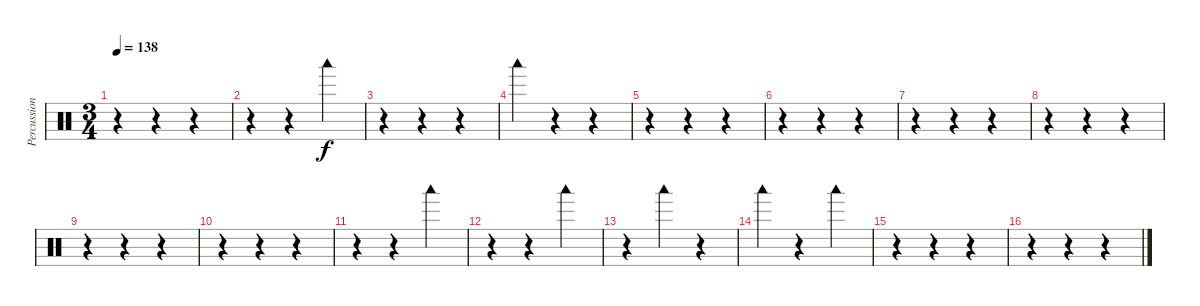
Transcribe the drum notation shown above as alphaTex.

\track ("Percussions" "Percussion") {instrument percussion}
\staff {score}
\articulation defaults
\ts (3 4)
\tempo 138
\clef neutral
\ks c
r.4{dy f} r.4 r.4 |
r.4 r.4 "Woodblock low (hit)".4 |
r.4 r.4 r.4 |
"Woodblock low (hit)".4 r.4 r.4 |
r.4 r.4 r.4 |
r.4 r.4 r.4 |
r.4 r.4 r.4 |
r.4 r.4 r.4 |
r.4 r.4 r.4 |
r.4 r.4 r.4 |
r.4 r.4 "Woodblock low (hit)".4 |
r.4 r.4 "Woodblock low (hit)".4 |
r.4 "Woodblock low (hit)".4 r.4 |
"Woodblock low (hit)".4 r.4 "Woodblock low (hit)".4 |
r.4 r.4 r.4 |
r.4 r.4 r.4
